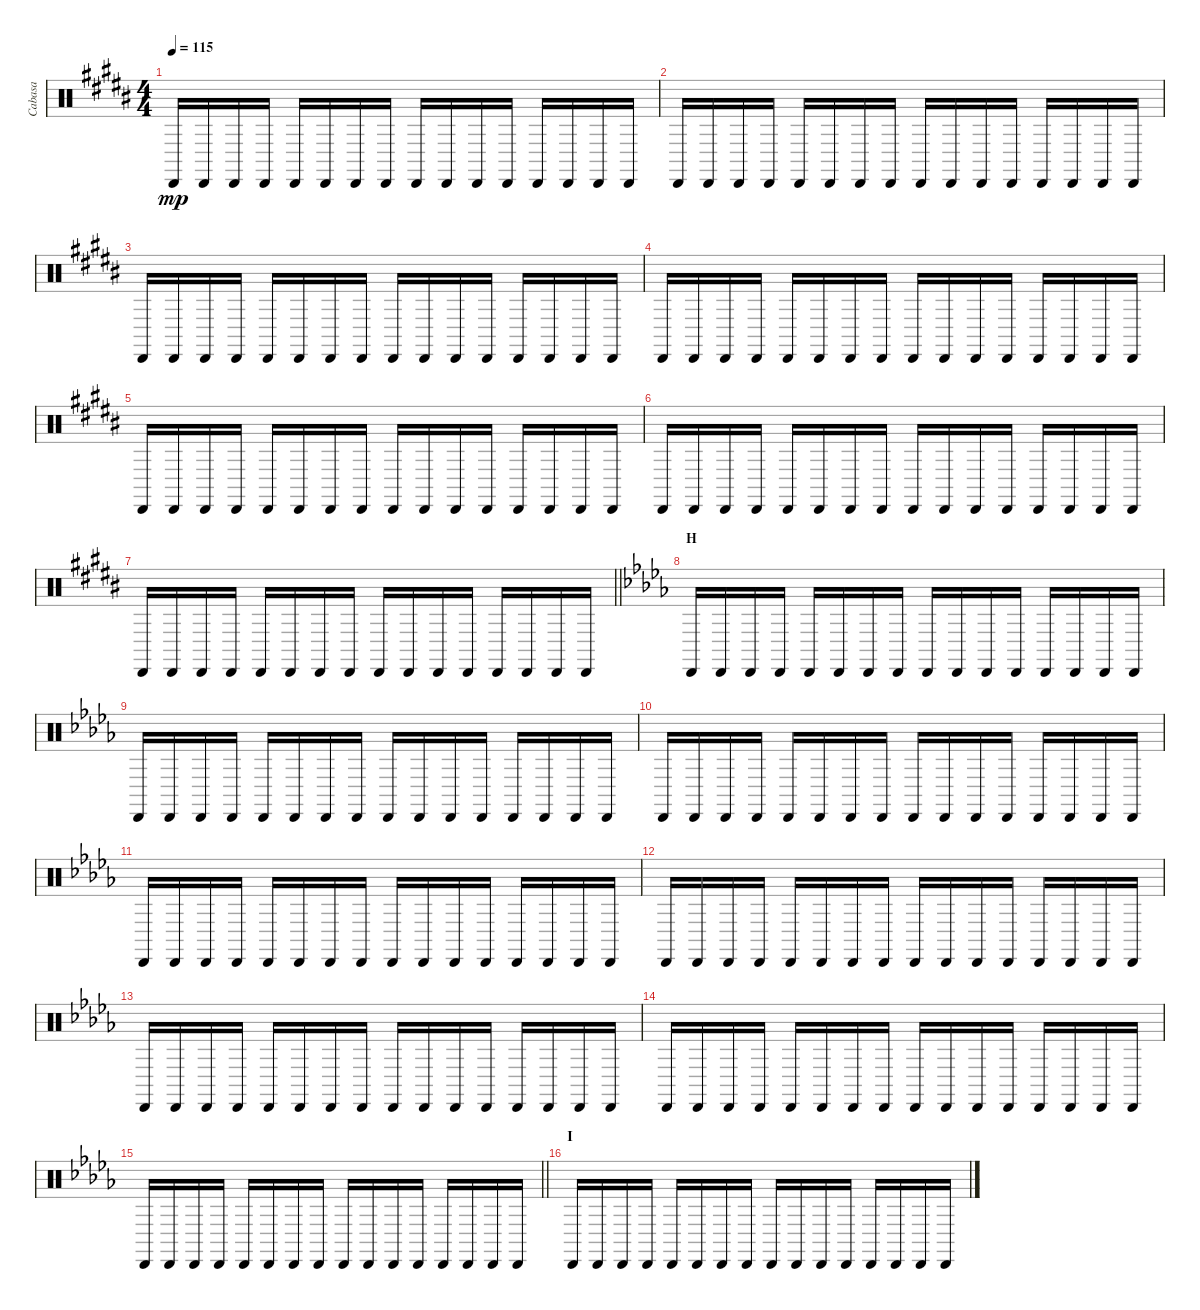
\track ("Cabasa" "Cabasa") {instrument percussion}
\staff {score}
\articulation defaults
\ts (4 4)
\tempo 115
\clef neutral
\ks b "Cabasa (hit)".16{dy mp} "Cabasa (hit)".16 "Cabasa (hit)".16 "Cabasa (hit)".16 "Cabasa (hit)".16 "Cabasa (hit)".16 "Cabasa (hit)".16 "Cabasa (hit)".16 "Cabasa (hit)".16 "Cabasa (hit)".16 "Cabasa (hit)".16 "Cabasa (hit)".16 "Cabasa (hit)".16 "Cabasa (hit)".16 "Cabasa (hit)".16 "Cabasa (hit)".16
|
"Cabasa (hit)".16 "Cabasa (hit)".16 "Cabasa (hit)".16 "Cabasa (hit)".16 "Cabasa (hit)".16 "Cabasa (hit)".16 "Cabasa (hit)".16 "Cabasa (hit)".16 "Cabasa (hit)".16 "Cabasa (hit)".16 "Cabasa (hit)".16 "Cabasa (hit)".16 "Cabasa (hit)".16 "Cabasa (hit)".16 "Cabasa (hit)".16 "Cabasa (hit)".16 |
"Cabasa (hit)".16 "Cabasa (hit)".16 "Cabasa (hit)".16 "Cabasa (hit)".16 "Cabasa (hit)".16 "Cabasa (hit)".16 "Cabasa (hit)".16 "Cabasa (hit)".16 "Cabasa (hit)".16 "Cabasa (hit)".16 "Cabasa (hit)".16 "Cabasa (hit)".16 "Cabasa (hit)".16 "Cabasa (hit)".16 "Cabasa (hit)".16 "Cabasa (hit)".16 |
"Cabasa (hit)".16 "Cabasa (hit)".16 "Cabasa (hit)".16 "Cabasa (hit)".16 "Cabasa (hit)".16 "Cabasa (hit)".16 "Cabasa (hit)".16 "Cabasa (hit)".16 "Cabasa (hit)".16 "Cabasa (hit)".16 "Cabasa (hit)".16 "Cabasa (hit)".16 "Cabasa (hit)".16 "Cabasa (hit)".16 "Cabasa (hit)".16 "Cabasa (hit)".16 |
"Cabasa (hit)".16 "Cabasa (hit)".16 "Cabasa (hit)".16 "Cabasa (hit)".16 "Cabasa (hit)".16 "Cabasa (hit)".16 "Cabasa (hit)".16 "Cabasa (hit)".16 "Cabasa (hit)".16 "Cabasa (hit)".16 "Cabasa (hit)".16 "Cabasa (hit)".16 "Cabasa (hit)".16 "Cabasa (hit)".16 "Cabasa (hit)".16 "Cabasa (hit)".16 |
"Cabasa (hit)".16 "Cabasa (hit)".16 "Cabasa (hit)".16 "Cabasa (hit)".16 "Cabasa (hit)".16 "Cabasa (hit)".16 "Cabasa (hit)".16 "Cabasa (hit)".16 "Cabasa (hit)".16 "Cabasa (hit)".16 "Cabasa (hit)".16 "Cabasa (hit)".16 "Cabasa (hit)".16 "Cabasa (hit)".16 "Cabasa (hit)".16 "Cabasa (hit)".16 |
\barLineRight lightlight "Cabasa (hit)".16 "Cabasa (hit)".16 "Cabasa (hit)".16 "Cabasa (hit)".16 "Cabasa (hit)".16 "Cabasa (hit)".16 "Cabasa (hit)".16 "Cabasa (hit)".16 "Cabasa (hit)".16 "Cabasa (hit)".16 "Cabasa (hit)".16 "Cabasa (hit)".16 "Cabasa (hit)".16 "Cabasa (hit)".16 "Cabasa (hit)".16 "Cabasa (hit)".16
|
\section ("" "H")
\ks db "Cabasa (hit)".16 "Cabasa (hit)".16 "Cabasa (hit)".16 "Cabasa (hit)".16 "Cabasa (hit)".16 "Cabasa (hit)".16 "Cabasa (hit)".16 "Cabasa (hit)".16 "Cabasa (hit)".16 "Cabasa (hit)".16 "Cabasa (hit)".16 "Cabasa (hit)".16 "Cabasa (hit)".16 "Cabasa (hit)".16 "Cabasa (hit)".16 "Cabasa (hit)".16
|
"Cabasa (hit)".16 "Cabasa (hit)".16 "Cabasa (hit)".16 "Cabasa (hit)".16 "Cabasa (hit)".16 "Cabasa (hit)".16 "Cabasa (hit)".16 "Cabasa (hit)".16 "Cabasa (hit)".16 "Cabasa (hit)".16 "Cabasa (hit)".16 "Cabasa (hit)".16 "Cabasa (hit)".16 "Cabasa (hit)".16 "Cabasa (hit)".16 "Cabasa (hit)".16 |
"Cabasa (hit)".16 "Cabasa (hit)".16 "Cabasa (hit)".16 "Cabasa (hit)".16 "Cabasa (hit)".16 "Cabasa (hit)".16 "Cabasa (hit)".16 "Cabasa (hit)".16 "Cabasa (hit)".16 "Cabasa (hit)".16 "Cabasa (hit)".16 "Cabasa (hit)".16 "Cabasa (hit)".16 "Cabasa (hit)".16 "Cabasa (hit)".16 "Cabasa (hit)".16 |
"Cabasa (hit)".16 "Cabasa (hit)".16 "Cabasa (hit)".16 "Cabasa (hit)".16 "Cabasa (hit)".16 "Cabasa (hit)".16 "Cabasa (hit)".16 "Cabasa (hit)".16 "Cabasa (hit)".16 "Cabasa (hit)".16 "Cabasa (hit)".16 "Cabasa (hit)".16 "Cabasa (hit)".16 "Cabasa (hit)".16 "Cabasa (hit)".16 "Cabasa (hit)".16 |
"Cabasa (hit)".16 "Cabasa (hit)".16 "Cabasa (hit)".16 "Cabasa (hit)".16 "Cabasa (hit)".16 "Cabasa (hit)".16 "Cabasa (hit)".16 "Cabasa (hit)".16 "Cabasa (hit)".16 "Cabasa (hit)".16 "Cabasa (hit)".16 "Cabasa (hit)".16 "Cabasa (hit)".16 "Cabasa (hit)".16 "Cabasa (hit)".16 "Cabasa (hit)".16 |
"Cabasa (hit)".16 "Cabasa (hit)".16 "Cabasa (hit)".16 "Cabasa (hit)".16 "Cabasa (hit)".16 "Cabasa (hit)".16 "Cabasa (hit)".16 "Cabasa (hit)".16 "Cabasa (hit)".16 "Cabasa (hit)".16 "Cabasa (hit)".16 "Cabasa (hit)".16 "Cabasa (hit)".16 "Cabasa (hit)".16 "Cabasa (hit)".16 "Cabasa (hit)".16 |
"Cabasa (hit)".16 "Cabasa (hit)".16 "Cabasa (hit)".16 "Cabasa (hit)".16 "Cabasa (hit)".16 "Cabasa (hit)".16 "Cabasa (hit)".16 "Cabasa (hit)".16 "Cabasa (hit)".16 "Cabasa (hit)".16 "Cabasa (hit)".16 "Cabasa (hit)".16 "Cabasa (hit)".16 "Cabasa (hit)".16 "Cabasa (hit)".16 "Cabasa (hit)".16 |
\barLineRight lightlight "Cabasa (hit)".16 "Cabasa (hit)".16 "Cabasa (hit)".16 "Cabasa (hit)".16 "Cabasa (hit)".16 "Cabasa (hit)".16 "Cabasa (hit)".16 "Cabasa (hit)".16 "Cabasa (hit)".16 "Cabasa (hit)".16 "Cabasa (hit)".16 "Cabasa (hit)".16 "Cabasa (hit)".16 "Cabasa (hit)".16 "Cabasa (hit)".16 "Cabasa (hit)".16
|
\section ("" "I")
"Cabasa (hit)".16 "Cabasa (hit)".16 "Cabasa (hit)".16 "Cabasa (hit)".16 "Cabasa (hit)".16 "Cabasa (hit)".16 "Cabasa (hit)".16 "Cabasa (hit)".16 "Cabasa (hit)".16 "Cabasa (hit)".16 "Cabasa (hit)".16 "Cabasa (hit)".16 "Cabasa (hit)".16 "Cabasa (hit)".16 "Cabasa (hit)".16 "Cabasa (hit)".16
